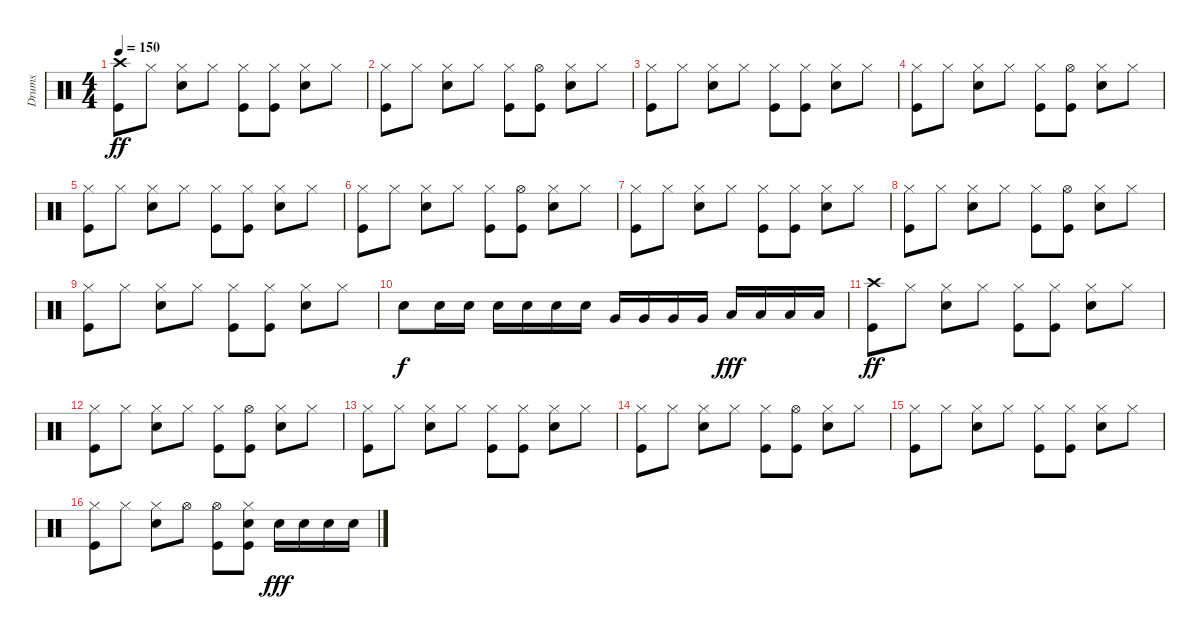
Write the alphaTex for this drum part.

\track ("Drums" "Drums") {instrument percussion}
\staff {score}
\articulation defaults
\ts (4 4)
\tempo 150
\clef neutral
\ks c
("Crash high (hit)" "Kick (hit)").8{dy ff} "Hi-Hat (closed)".8 ("Hi-Hat (closed)" "Snare (hit) 2").8 "Hi-Hat (closed)".8 ("Hi-Hat (closed)" "Kick (hit)").8 ("Hi-Hat (closed)" "Kick (hit)").8 ("Hi-Hat (closed)" "Snare (hit) 2").8 "Hi-Hat (closed)".8 |
("Hi-Hat (closed)" "Kick (hit)").8 "Hi-Hat (closed)".8 ("Hi-Hat (closed)" "Snare (hit) 2").8 "Hi-Hat (closed)".8 ("Hi-Hat (closed)" "Kick (hit)").8 ("Hi-Hat (open)" "Kick (hit)").8 ("Hi-Hat (closed)" "Snare (hit) 2").8 "Hi-Hat (closed)".8 |
("Hi-Hat (closed)" "Kick (hit)").8 "Hi-Hat (closed)".8 ("Hi-Hat (closed)" "Snare (hit) 2").8 "Hi-Hat (closed)".8 ("Hi-Hat (closed)" "Kick (hit)").8 ("Hi-Hat (closed)" "Kick (hit)").8 ("Hi-Hat (closed)" "Snare (hit) 2").8 "Hi-Hat (closed)".8 |
("Hi-Hat (closed)" "Kick (hit)").8 "Hi-Hat (closed)".8 ("Hi-Hat (closed)" "Snare (hit) 2").8 "Hi-Hat (closed)".8 ("Hi-Hat (closed)" "Kick (hit)").8 ("Hi-Hat (open)" "Kick (hit)").8 ("Hi-Hat (closed)" "Snare (hit) 2").8 "Hi-Hat (closed)".8 |
("Hi-Hat (closed)" "Kick (hit)").8 "Hi-Hat (closed)".8 ("Hi-Hat (closed)" "Snare (hit) 2").8 "Hi-Hat (closed)".8 ("Hi-Hat (closed)" "Kick (hit)").8 ("Hi-Hat (closed)" "Kick (hit)").8 ("Hi-Hat (closed)" "Snare (hit) 2").8 "Hi-Hat (closed)".8 |
("Hi-Hat (closed)" "Kick (hit)").8 "Hi-Hat (closed)".8 ("Hi-Hat (closed)" "Snare (hit) 2").8 "Hi-Hat (closed)".8 ("Hi-Hat (closed)" "Kick (hit)").8 ("Hi-Hat (open)" "Kick (hit)").8 ("Hi-Hat (closed)" "Snare (hit) 2").8 "Hi-Hat (closed)".8 |
("Hi-Hat (closed)" "Kick (hit)").8 "Hi-Hat (closed)".8 ("Hi-Hat (closed)" "Snare (hit) 2").8 "Hi-Hat (closed)".8 ("Hi-Hat (closed)" "Kick (hit)").8 ("Hi-Hat (closed)" "Kick (hit)").8 ("Hi-Hat (closed)" "Snare (hit) 2").8 "Hi-Hat (closed)".8 |
("Hi-Hat (closed)" "Kick (hit)").8 "Hi-Hat (closed)".8 ("Hi-Hat (closed)" "Snare (hit) 2").8 "Hi-Hat (closed)".8 ("Hi-Hat (closed)" "Kick (hit)").8 ("Hi-Hat (open)" "Kick (hit)").8 ("Hi-Hat (closed)" "Snare (hit) 2").8 "Hi-Hat (closed)".8 |
("Hi-Hat (closed)" "Kick (hit)").8 "Hi-Hat (closed)".8 ("Hi-Hat (closed)" "Snare (hit) 2").8 "Hi-Hat (closed)".8 ("Hi-Hat (closed)" "Kick (hit)").8 ("Hi-Hat (closed)" "Kick (hit)").8 ("Hi-Hat (closed)" "Snare (hit) 2").8 "Hi-Hat (closed)".8 |
"Snare (hit) 2".8{dy f} "Snare (hit) 2".16 "Snare (hit) 2".16 "Snare (hit) 2".16 "Snare (hit) 2".16 "Snare (hit) 2".16 "Snare (hit) 2".16 "Very Low Tom (hit)".16 "Very Low Tom (hit)".16 "Very Low Tom (hit)".16 "Very Low Tom (hit)".16 "Low Floor Tom (hit)".16{dy fff} "Low Floor Tom (hit)".16 "Low Floor Tom (hit)".16 "Low Floor Tom (hit)".16 |
("Crash high (hit)" "Kick (hit)").8{dy ff} "Hi-Hat (closed)".8 ("Hi-Hat (closed)" "Snare (hit) 2").8 "Hi-Hat (closed)".8 ("Hi-Hat (closed)" "Kick (hit)").8 ("Hi-Hat (closed)" "Kick (hit)").8 ("Hi-Hat (closed)" "Snare (hit) 2").8 "Hi-Hat (closed)".8 |
("Hi-Hat (closed)" "Kick (hit)").8 "Hi-Hat (closed)".8 ("Hi-Hat (closed)" "Snare (hit) 2").8 "Hi-Hat (closed)".8 ("Hi-Hat (closed)" "Kick (hit)").8 ("Hi-Hat (open)" "Kick (hit)").8 ("Hi-Hat (closed)" "Snare (hit) 2").8 "Hi-Hat (closed)".8 |
("Hi-Hat (closed)" "Kick (hit)").8 "Hi-Hat (closed)".8 ("Hi-Hat (closed)" "Snare (hit) 2").8 "Hi-Hat (closed)".8 ("Hi-Hat (closed)" "Kick (hit)").8 ("Hi-Hat (closed)" "Kick (hit)").8 ("Hi-Hat (closed)" "Snare (hit) 2").8 "Hi-Hat (closed)".8 |
("Hi-Hat (closed)" "Kick (hit)").8 "Hi-Hat (closed)".8 ("Hi-Hat (closed)" "Snare (hit) 2").8 "Hi-Hat (closed)".8 ("Hi-Hat (closed)" "Kick (hit)").8 ("Hi-Hat (open)" "Kick (hit)").8 ("Hi-Hat (closed)" "Snare (hit) 2").8 "Hi-Hat (closed)".8 |
("Hi-Hat (closed)" "Kick (hit)").8 "Hi-Hat (closed)".8 ("Hi-Hat (closed)" "Snare (hit) 2").8 "Hi-Hat (closed)".8 ("Hi-Hat (closed)" "Kick (hit)").8 ("Hi-Hat (closed)" "Kick (hit)").8 ("Hi-Hat (closed)" "Snare (hit) 2").8 "Hi-Hat (closed)".8 |
("Hi-Hat (closed)" "Kick (hit)").8 "Hi-Hat (closed)".8 ("Hi-Hat (closed)" "Snare (hit) 2").8 "Hi-Hat (open)".8 ("Hi-Hat (open)" "Kick (hit)").8 ("Hi-Hat (closed)" "Snare (hit) 2" "Kick (hit)").8 "Snare (hit) 2".16{dy fff} "Snare (hit) 2".16 "Snare (hit) 2".16 "Snare (hit) 2".16
